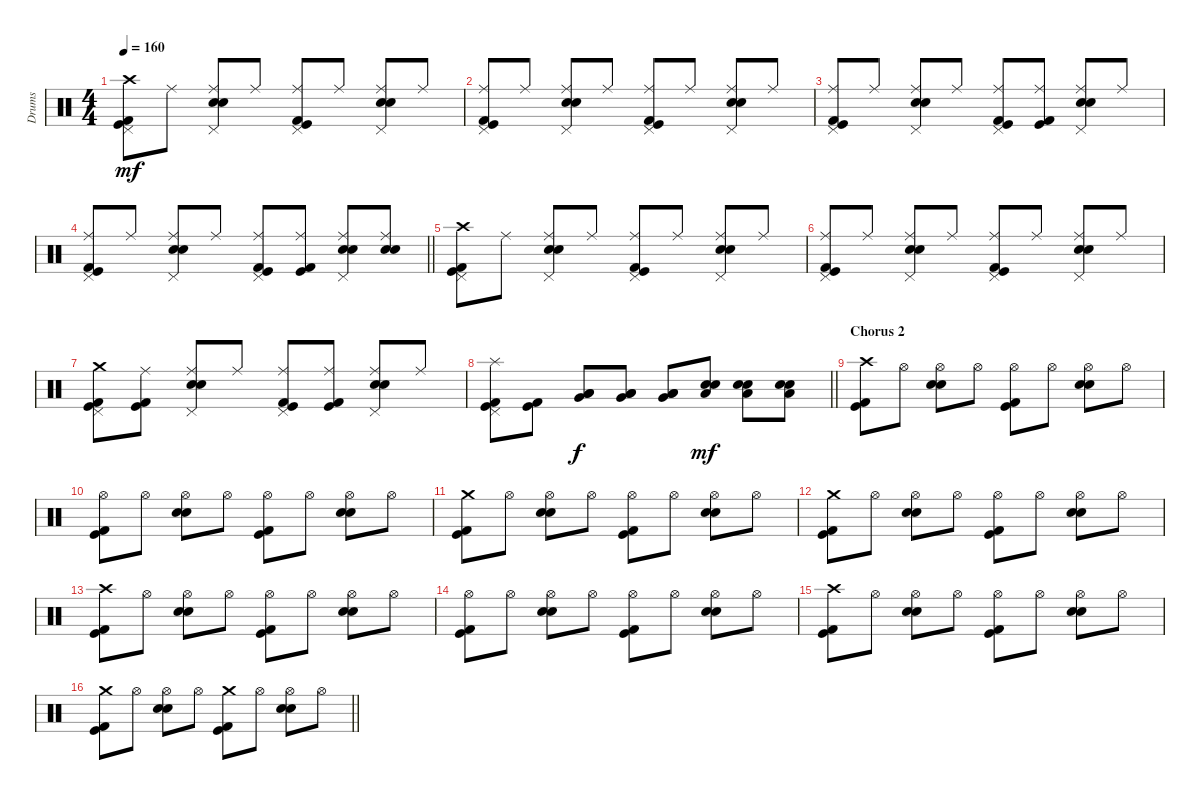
\track ("Drums" "Drums") {instrument percussion}
\staff {score}
\articulation defaults
\ts (4 4)
\tempo 160
\clef neutral
\ks c
("Crash high (hit)" "Pedal Hi-Hat (hit)" "Kick (hit) 2" "Kick (hit)").8{dy mf} "Ride (middle)".8 ("Ride (middle)" "Pedal Hi-Hat (hit)" "Snare (hit) 2" "Electric Snare (hit)").8 "Ride (middle)".8 ("Ride (middle)" "Pedal Hi-Hat (hit)" "Kick (hit) 2" "Kick (hit)").8 "Ride (middle)".8 ("Ride (middle)" "Pedal Hi-Hat (hit)" "Snare (hit) 2" "Electric Snare (hit)").8 "Ride (middle)".8 |
("Ride (middle)" "Pedal Hi-Hat (hit)" "Kick (hit) 2" "Kick (hit)").8 "Ride (middle)".8 ("Ride (middle)" "Pedal Hi-Hat (hit)" "Snare (hit) 2" "Electric Snare (hit)").8 "Ride (middle)".8 ("Ride (middle)" "Pedal Hi-Hat (hit)" "Kick (hit) 2" "Kick (hit)").8 "Ride (middle)".8 ("Ride (middle)" "Pedal Hi-Hat (hit)" "Snare (hit) 2" "Electric Snare (hit)").8 "Ride (middle)".8 |
("Ride (middle)" "Pedal Hi-Hat (hit)" "Kick (hit) 2" "Kick (hit)").8 "Ride (middle)".8 ("Ride (middle)" "Pedal Hi-Hat (hit)" "Snare (hit) 2" "Electric Snare (hit)").8 "Ride (middle)".8 ("Ride (middle)" "Pedal Hi-Hat (hit)" "Kick (hit) 2" "Kick (hit)").8 ("Ride (middle)" "Kick (hit) 2" "Kick (hit)").8 ("Ride (middle)" "Pedal Hi-Hat (hit)" "Snare (hit) 2" "Electric Snare (hit)").8 "Ride (middle)".8 |
\barLineRight lightlight
("Ride (middle)" "Pedal Hi-Hat (hit)" "Kick (hit) 2" "Kick (hit)").8 "Ride (middle)".8 ("Ride (middle)" "Pedal Hi-Hat (hit)" "Snare (hit) 2" "Electric Snare (hit)").8 "Ride (middle)".8 ("Ride (middle)" "Pedal Hi-Hat (hit)" "Kick (hit) 2" "Kick (hit)").8 ("Ride (middle)" "Kick (hit) 2" "Kick (hit)").8 ("Ride (middle)" "Pedal Hi-Hat (hit)" "Snare (hit) 2" "Electric Snare (hit)").8 ("Ride (middle)" "Snare (hit) 2" "Electric Snare (hit)").8 |
("Crash high (hit)" "Pedal Hi-Hat (hit)" "Kick (hit) 2" "Kick (hit)").8 "Ride (middle)".8 ("Ride (middle)" "Pedal Hi-Hat (hit)" "Snare (hit) 2" "Electric Snare (hit)").8 "Ride (middle)".8 ("Ride (middle)" "Pedal Hi-Hat (hit)" "Kick (hit) 2" "Kick (hit)").8 "Ride (middle)".8 ("Ride (middle)" "Pedal Hi-Hat (hit)" "Snare (hit) 2" "Electric Snare (hit)").8 "Ride (middle)".8 |
("Ride (middle)" "Pedal Hi-Hat (hit)" "Kick (hit) 2" "Kick (hit)").8 "Ride (middle)".8 ("Ride (middle)" "Pedal Hi-Hat (hit)" "Snare (hit) 2" "Electric Snare (hit)").8 "Ride (middle)".8 ("Ride (middle)" "Pedal Hi-Hat (hit)" "Kick (hit) 2" "Kick (hit)").8 "Ride (middle)".8 ("Ride (middle)" "Pedal Hi-Hat (hit)" "Snare (hit) 2" "Electric Snare (hit)").8 "Ride (middle)".8 |
("Crash medium (hit)" "Pedal Hi-Hat (hit)" "Kick (hit) 2" "Kick (hit)").8 ("Ride (middle)" "Kick (hit) 2" "Kick (hit)").8 ("Ride (middle)" "Pedal Hi-Hat (hit)" "Snare (hit) 2" "Electric Snare (hit)").8 "Ride (middle)".8 ("Ride (middle)" "Pedal Hi-Hat (hit)" "Kick (hit) 2" "Kick (hit)").8 ("Ride (middle)" "Kick (hit) 2" "Kick (hit)").8 ("Ride (middle)" "Pedal Hi-Hat (hit)" "Snare (hit) 2" "Electric Snare (hit)").8 "Ride (middle)".8 |
\barLineRight lightlight
("Splash (hit)" "Pedal Hi-Hat (hit)" "Kick (hit) 2" "Kick (hit)").8 ("Kick (hit) 2" "Kick (hit)").8 ("Low Tom (hit)" "Low Floor Tom (hit)" "Very Low Tom (hit)").8{dy f} ("Low Tom (hit)" "Low Floor Tom (hit)" "Very Low Tom (hit)").8 ("Low Tom (hit)" "Low Floor Tom (hit)" "Very Low Tom (hit)").8 ("Low Floor Tom (hit)" "Snare (hit) 2" "Electric Snare (hit)").8{dy mf} ("Low Floor Tom (hit)" "Snare (hit) 2" "Electric Snare (hit)").8 ("Low Floor Tom (hit)" "Snare (hit) 2" "Electric Snare (hit)").8 |
\section ("" "Chorus 2")
("Crash high (hit)" "Kick (hit) 2" "Kick (hit)").8 "Hi-Hat (open)".8 ("Hi-Hat (open)" "Snare (hit) 2" "Electric Snare (hit)").8 "Hi-Hat (open)".8 ("Hi-Hat (open)" "Kick (hit) 2" "Kick (hit)").8 "Hi-Hat (open)".8 ("Hi-Hat (open)" "Snare (hit) 2" "Electric Snare (hit)").8 "Hi-Hat (open)".8 |
("Hi-Hat (open)" "Kick (hit) 2" "Kick (hit)").8 "Hi-Hat (open)".8 ("Hi-Hat (open)" "Snare (hit) 2" "Electric Snare (hit)").8 "Hi-Hat (open)".8 ("Hi-Hat (open)" "Kick (hit) 2" "Kick (hit)").8 "Hi-Hat (open)".8 ("Hi-Hat (open)" "Snare (hit) 2" "Electric Snare (hit)").8 "Hi-Hat (open)".8 |
("Crash medium (hit)" "Kick (hit) 2" "Kick (hit)").8 "Hi-Hat (open)".8 ("Hi-Hat (open)" "Snare (hit) 2" "Electric Snare (hit)").8 "Hi-Hat (open)".8 ("Hi-Hat (open)" "Kick (hit) 2" "Kick (hit)").8 "Hi-Hat (open)".8 ("Hi-Hat (open)" "Snare (hit) 2" "Electric Snare (hit)").8 "Hi-Hat (open)".8 |
("Crash medium (hit)" "Kick (hit) 2" "Kick (hit)").8 "Hi-Hat (open)".8 ("Hi-Hat (open)" "Snare (hit) 2" "Electric Snare (hit)").8 "Hi-Hat (open)".8 ("Hi-Hat (open)" "Kick (hit) 2" "Kick (hit)").8 "Hi-Hat (open)".8 ("Hi-Hat (open)" "Snare (hit) 2" "Electric Snare (hit)").8 "Hi-Hat (open)".8 |
("Crash high (hit)" "Kick (hit) 2" "Kick (hit)").8 "Hi-Hat (open)".8 ("Hi-Hat (open)" "Snare (hit) 2" "Electric Snare (hit)").8 "Hi-Hat (open)".8 ("Hi-Hat (open)" "Kick (hit) 2" "Kick (hit)").8 "Hi-Hat (open)".8 ("Hi-Hat (open)" "Snare (hit) 2" "Electric Snare (hit)").8 "Hi-Hat (open)".8 |
("Hi-Hat (open)" "Kick (hit) 2" "Kick (hit)").8 "Hi-Hat (open)".8 ("Hi-Hat (open)" "Snare (hit) 2" "Electric Snare (hit)").8 "Hi-Hat (open)".8 ("Hi-Hat (open)" "Kick (hit) 2" "Kick (hit)").8 "Hi-Hat (open)".8 ("Hi-Hat (open)" "Snare (hit) 2" "Electric Snare (hit)").8 "Hi-Hat (open)".8 |
("Crash high (hit)" "Kick (hit) 2" "Kick (hit)").8 "Hi-Hat (open)".8 ("Hi-Hat (open)" "Snare (hit) 2" "Electric Snare (hit)").8 "Hi-Hat (open)".8 ("Hi-Hat (open)" "Kick (hit) 2" "Kick (hit)").8 "Hi-Hat (open)".8 ("Hi-Hat (open)" "Snare (hit) 2" "Electric Snare (hit)").8 "Hi-Hat (open)".8 |
\barLineRight lightlight
("Crash medium (hit)" "Kick (hit) 2" "Kick (hit)").8 "Hi-Hat (open)".8 ("Hi-Hat (open)" "Snare (hit) 2" "Electric Snare (hit)").8 "Hi-Hat (open)".8 ("Crash medium (hit)" "Kick (hit) 2" "Kick (hit)").8 "Hi-Hat (open)".8 ("Hi-Hat (open)" "Snare (hit) 2" "Electric Snare (hit)").8 "Hi-Hat (open)".8
